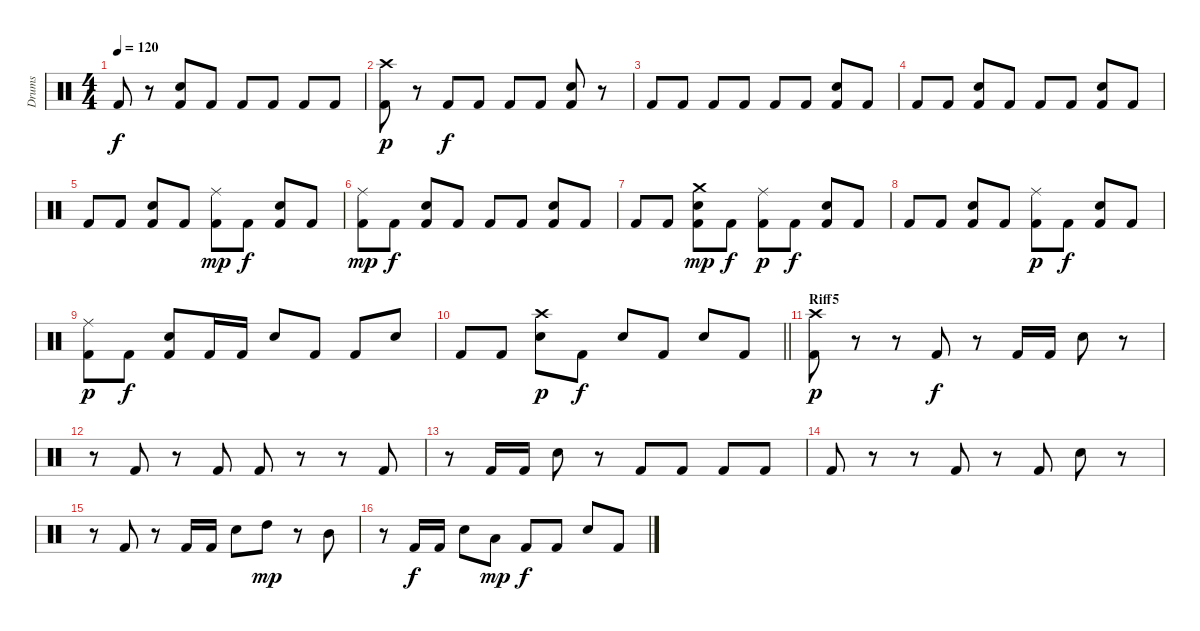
\track ("Drums" "Drums") {instrument percussion}
\staff {score}
\articulation defaults
\ts (4 4)
\tempo 120
\clef neutral
\ks c "Kick (hit) 2".8{dy f}
r.8 ("Kick (hit) 2" "Snare (hit) 2").8 "Kick (hit) 2".8 "Kick (hit) 2".8 "Kick (hit) 2".8 "Kick (hit) 2".8 "Kick (hit) 2".8 |
("Kick (hit) 2" "Crash high (hit)").8{dy p} r.8 "Kick (hit) 2".8{dy f} "Kick (hit) 2".8 "Kick (hit) 2".8 "Kick (hit) 2".8 ("Kick (hit) 2" "Snare (hit) 2").8 r.8 |
"Kick (hit) 2".8 "Kick (hit) 2".8 "Kick (hit) 2".8 "Kick (hit) 2".8 "Kick (hit) 2".8 "Kick (hit) 2".8 ("Kick (hit) 2" "Snare (hit) 2").8 "Kick (hit) 2".8 |
"Kick (hit) 2".8 "Kick (hit) 2".8 ("Kick (hit) 2" "Snare (hit) 2").8 "Kick (hit) 2".8 "Kick (hit) 2".8 "Kick (hit) 2".8 ("Kick (hit) 2" "Snare (hit) 2").8 "Kick (hit) 2".8 |
"Kick (hit) 2".8 "Kick (hit) 2".8 ("Kick (hit) 2" "Snare (hit) 2").8 "Kick (hit) 2".8 ("Kick (hit) 2" "Ride (middle)").8{dy mp} "Kick (hit) 2".8{dy f} ("Kick (hit) 2" "Snare (hit) 2").8 "Kick (hit) 2".8 |
("Kick (hit) 2" "Ride (middle)").8{dy mp} "Kick (hit) 2".8{dy f} ("Kick (hit) 2" "Snare (hit) 2").8 "Kick (hit) 2".8 "Kick (hit) 2".8 "Kick (hit) 2".8 ("Kick (hit) 2" "Snare (hit) 2").8 "Kick (hit) 2".8 |
"Kick (hit) 2".8 "Kick (hit) 2".8 ("Kick (hit) 2" "Crash medium (hit)" "Snare (hit) 2").8{dy mp} "Kick (hit) 2".8{dy f} ("Kick (hit) 2" "Ride (middle)").8{dy p} "Kick (hit) 2".8{dy f} ("Kick (hit) 2" "Snare (hit) 2").8 "Kick (hit) 2".8 |
"Kick (hit) 2".8 "Kick (hit) 2".8 ("Kick (hit) 2" "Snare (hit) 2").8 "Kick (hit) 2".8 ("Kick (hit) 2" "Ride (middle)").8{dy p} "Kick (hit) 2".8{dy f} ("Kick (hit) 2" "Snare (hit) 2").8 "Kick (hit) 2".8 |
("Kick (hit) 2" "Ride (middle)").8{dy p} "Kick (hit) 2".8{dy f} ("Kick (hit) 2" "Snare (hit) 2").8 "Kick (hit) 2".16 "Kick (hit) 2".16 "Snare (hit) 2".8 "Kick (hit) 2".8 "Kick (hit) 2".8 "Snare (hit) 2".8 |
\barLineRight lightlight "Kick (hit) 2".8 "Kick (hit) 2".8
("Crash high (hit)" "Snare (hit) 2").8{dy p} "Kick (hit) 2".8{dy f} "Snare (hit) 2".8 "Kick (hit) 2".8 "Snare (hit) 2".8 "Kick (hit) 2".8 |
\section ("" "Riff5")
("Kick (hit) 2" "Crash high (hit)").8{dy p} r.8 r.8 "Kick (hit) 2".8{dy f} r.8 "Kick (hit) 2".16 "Kick (hit) 2".16 "Snare (hit) 2".8 r.8 |
r.8 "Kick (hit) 2".8 r.8 "Kick (hit) 2".8 "Kick (hit) 2".8 r.8 r.8 "Kick (hit) 2".8 |
r.8 "Kick (hit) 2".16 "Kick (hit) 2".16 "Snare (hit) 2".8 r.8 "Kick (hit) 2".8 "Kick (hit) 2".8 "Kick (hit) 2".8 "Kick (hit) 2".8 |
"Kick (hit) 2".8 r.8 r.8 "Kick (hit) 2".8 r.8 "Kick (hit) 2".8 "Snare (hit) 2".8 r.8 |
r.8 "Kick (hit) 2".8 r.8 "Kick (hit) 2".16 "Kick (hit) 2".16 "Snare (hit) 2".8 "High Tom (hit)".8{dy mp} r.8 "Mid Tom (hit)".8 |
r.8 "Kick (hit) 2".16{dy f} "Kick (hit) 2".16 "Snare (hit) 2".8 "Low Tom (hit)".8{dy mp} "Kick (hit) 2".8{dy f} "Kick (hit) 2".8 "Snare (hit) 2".8 "Kick (hit) 2".8
